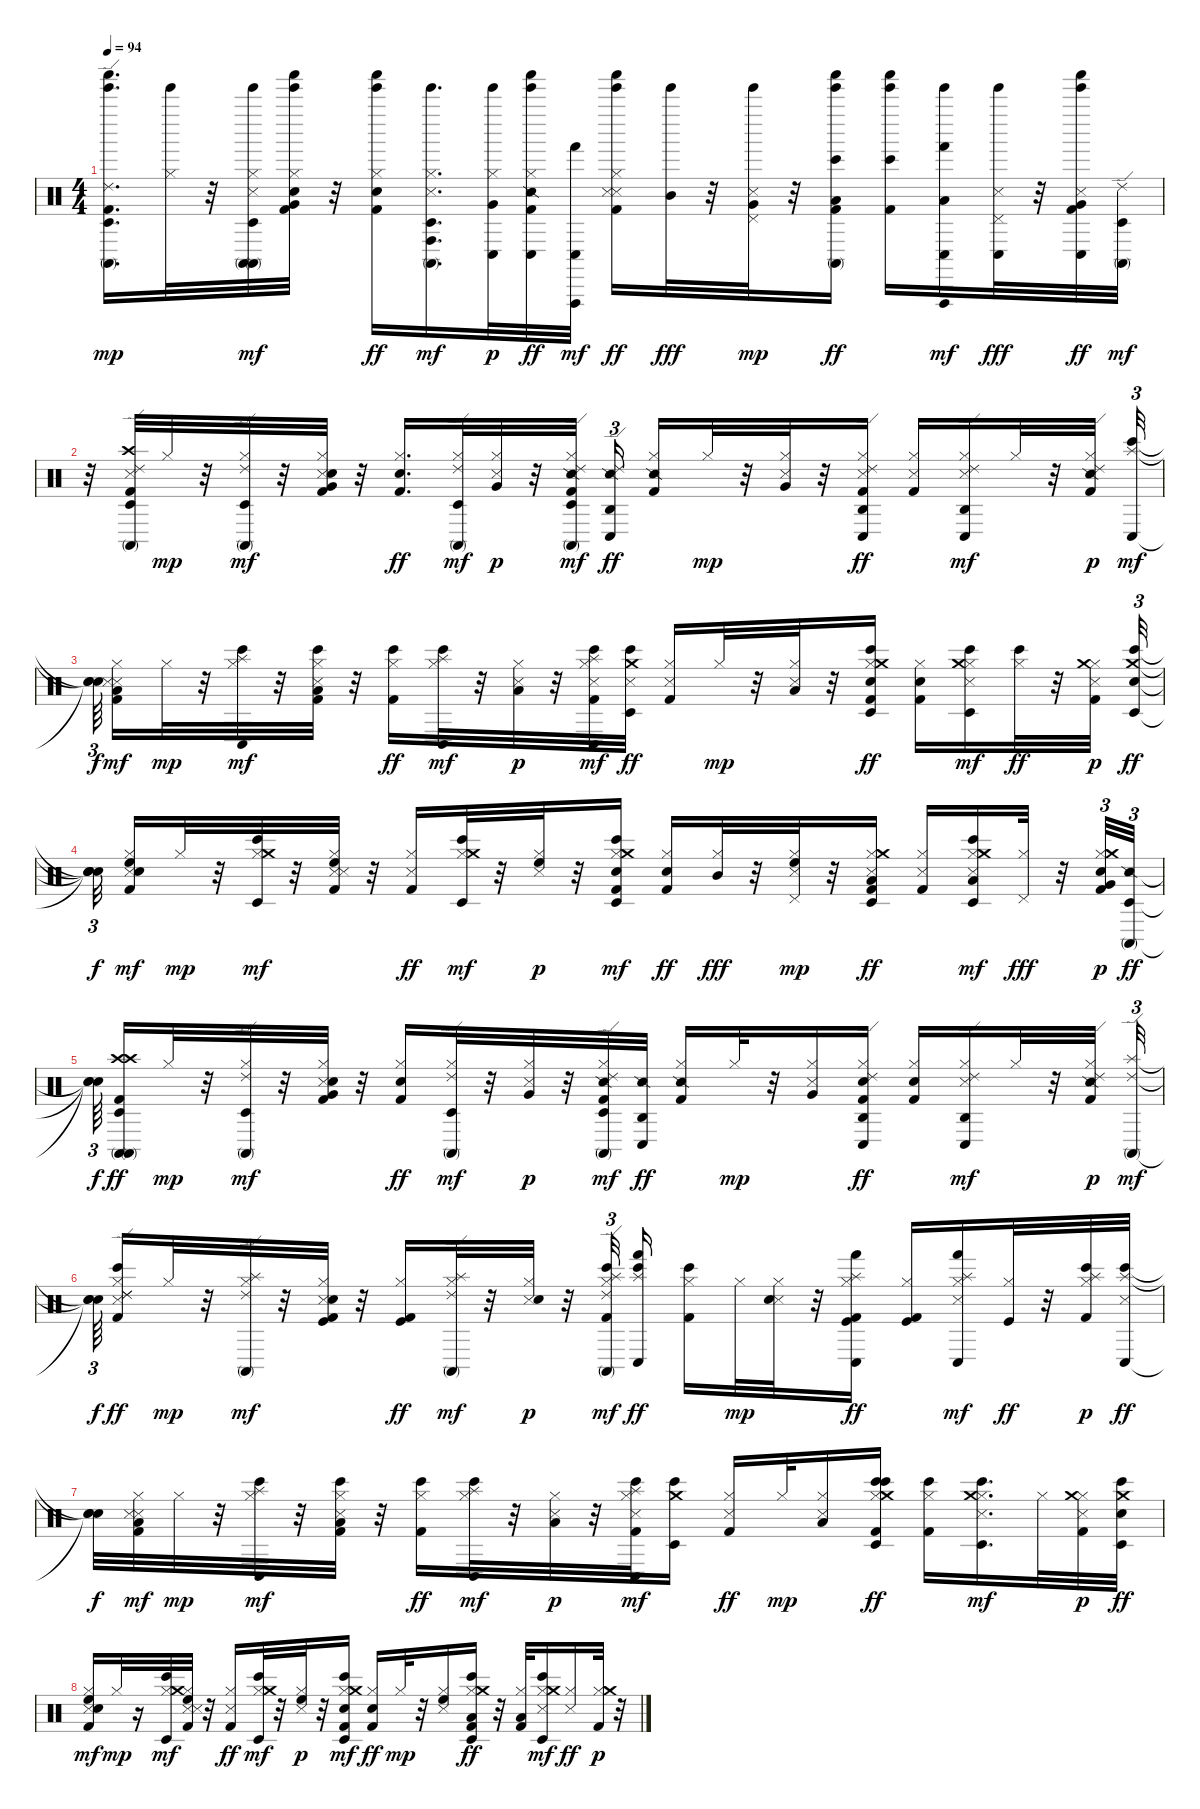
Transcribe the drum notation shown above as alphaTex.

\track "" {instrument percussion}
\staff {score}
\articulation defaults
\ts (4 4)
\tempo 94
\clef neutral
\ks c
("Conga high (mute)" "Timbale low (hit)" "Ride (edge) 2" "Kick (hit) 2" "Tinkle Bell (hit)" "Shaker (hit)").16{d dy mp volume 6} ("Tinkle Bell (hit)" "Hi-Hat (closed)").32 r.32 ("Tinkle Bell (hit)" "Conga high (mute)" "Snare (side stick) 3" "Hi-Hat (closed)" "Conga high (mute)" "Timbale low (hit)").32{dy mf} ("Kick (hit) 2" "Hi-Hat (closed)" "Tinkle Bell (hit)" "Shaker (hit)" "Snare (hit) 2" "Very Low Tom (hit)").32 r.32 ("Kick (hit) 2" "Hi-Hat (closed)" "Tinkle Bell (hit)" "Shaker (hit)" "Snare (hit) 2").16{dy ff} ("Tinkle Bell (hit)" "Conga high (hit)" "Snare (side stick) 3" "Hi-Hat (closed)" "Timbale low (hit)" "Conga high (mute)").16{d dy mf} ("Tinkle Bell (hit)" "Conga low (hit)" "Hi-Hat (closed)" "Very Low Tom (hit)").32{dy p} ("Kick (hit) 2" "Conga low (hit)" "Hi-Hat (closed)" "Tinkle Bell (hit)" "Shaker (hit)" "Snare (side stick) 2").32{dy ff} ("Vibraslap (hit)" "Hand (hit)" "Conga low (hit)").32{dy mf volume 6} ("Kick (hit) 2" "Snare (side stick) 3" "Tinkle Bell (hit)" "Shaker (hit)" "Hi-Hat (closed)" "Metronome (hit)").16{dy ff} ("Tinkle Bell (hit)" "Mid Tom (hit)").32{dy fff} r.32 ("Tinkle Bell (hit)" "Pedal Hi-Hat (hit)" "Snare (side stick) 3" "Very Low Tom (hit)").32{dy mp} r.32 ("Conga high (mute)" "Kick (hit) 2" "Tinkle Bell (hit)" "Shaker (hit)" "Low Tom (hit)" "Bongo High (hit)").16{dy ff} ("Kick (hit) 2" "Tinkle Bell (hit)" "Shaker (hit)" "Bongo High (hit)").16 ("Tinkle Bell (hit)" "Low Tom (hit)" "Vibraslap (hit)" "Hand (hit)" "Conga low (hit)").16{dy mf} ("Tinkle Bell (hit)" "Conga low (hit)" "Pedal Hi-Hat (hit)" "Snare (side stick) 3").32{dy fff} r.32 ("Kick (hit) 2" "Tinkle Bell (hit)" "Shaker (hit)" "Conga low (hit)" "Very Low Tom (hit)" "Metronome (hit)").32{dy ff volume 7} ("Conga high (mute)" "Timbale low (hit)" "Ride (edge) 2").32{dy mf volume 6} |
r.32 ("Conga high (mute)" "Timbale low (hit)" "Ride (edge) 2" "Crash high (hit)" "Kick (hit) 2" "Snare (side stick) 3").32 "Hi-Hat (closed)".32{dy mp} r.32 ("Hi-Hat (closed)" "Conga high (mute)" "Timbale low (hit)" "Ride (edge) 2").32{dy mf} r.32 ("Kick (hit) 2" "Snare (side stick) 3" "Hi-Hat (closed)" "Snare (hit) 2" "Very Low Tom (hit)").32 r.32 ("Kick (hit) 2" "Hi-Hat (closed)" "Snare (hit) 2").16{d dy ff} ("Hi-Hat (closed)" "Timbale low (hit)" "Conga high (mute)" "Ride (edge) 2").32{dy mf} ("Snare (side stick) 3" "Hi-Hat (closed)" "Very Low Tom (hit)").32{dy p} r.32 ("Kick (hit) 2" "Hi-Hat (closed)" "Snare (side stick) 2" "Conga high (mute)" "Ride (edge) 2" "Timbale low (hit)").32{dy mf} ("Conga low (hit)" "Agogo high (hit)" "Ride (edge) 2" "Snare (side stick) 2").16{tu (3 2) dy ff volume 6} ("Kick (hit) 2" "Hi-Hat (closed)" "Snare (side stick) 2").16 "Hi-Hat (closed)".32{dy mp} r.32 ("Snare (side stick) 3" "Hi-Hat (closed)" "Very Low Tom (hit)").32 r.32 ("Kick (hit) 2" "Hi-Hat (closed)" "Snare (side stick) 3" "Agogo high (hit)" "Ride (edge) 2" "Conga low (hit)").16{dy ff} ("Kick (hit) 2" "Hi-Hat (closed)" "Snare (side stick) 3").16 ("Snare (side stick) 3" "Hi-Hat (closed)" "Conga low (hit)" "Ride (edge) 2" "Agogo high (hit)").16{dy mf} "Hi-Hat (closed)".32 r.32 ("Kick (hit) 2" "Hi-Hat (closed)" "Snare (side stick) 2" "Ride (edge) 2").32{dy p volume 7} ("Bongo High (hit)" "Conga low (hit)" "Splash (hit)").32{tu (3 2) dy mf volume 6} |
("Snare (hit)"{t} "Snare (hit)"{t} "Snare (hit)"{t}).64{tu (3 2) dy f beam splitsecondary} ("Kick (hit) 2" "Snare (side stick) 3" "Hi-Hat (closed)" "Metronome (hit)" "Low Tom (hit)").16{dy mf} "Hi-Hat (closed)".32{dy mp} r.32 ("Hi-Hat (closed)" "Bongo High (hit)" "Conga low (hit)" "Splash (hit)").32{dy mf} r.32 ("Kick (hit) 2" "Snare (side stick) 3" "Hi-Hat (closed)" "Bongo High (hit)" "Low Tom (hit)").32 r.32 ("Kick (hit) 2" "Hi-Hat (closed)" "Bongo High (hit)").16{dy ff} ("Hi-Hat (closed)" "Conga low (hit)" "Bongo High (hit)" "Splash (hit)").32{dy mf} r.32 ("Snare (side stick) 3" "Hi-Hat (closed)" "Low Tom (hit)").32{dy p} r.32 ("Kick (hit) 2" "Hi-Hat (closed)" "Metronome (hit)" "Bongo High (hit)" "Splash (hit)" "Conga low (hit)").32{dy mf volume 7} ("Timbale low (hit)" "Bongo High (hit)" "Crash medium (hit)" "Metronome (hit)").32{dy ff volume 6} ("Kick (hit) 2" "Hi-Hat (closed)" "Metronome (hit)").16 "Hi-Hat (closed)".32{dy mp} r.32 ("Snare (side stick) 3" "Hi-Hat (closed)" "Low Tom (hit)").32 r.32 ("Kick (hit) 2" "Hi-Hat (closed)" "Electric Snare (hit)" "Timbale low (hit)" "Crash medium (hit)" "Bongo High (hit)").16{dy ff} ("Kick (hit) 2" "Hi-Hat (closed)" "Electric Snare (hit)").16 ("Snare (side stick) 3" "Hi-Hat (closed)" "Bongo High (hit)" "Crash medium (hit)" "Timbale low (hit)").16{dy mf} ("Hi-Hat (closed)" "Bongo High (hit)").32{dy ff} r.32 ("Kick (hit) 2" "Hi-Hat (closed)" "Metronome (hit)" "Crash medium (hit)").32{dy p} ("Bongo High (hit)" "Timbale low (hit)" "Crash medium (hit)" "Snare (hit) 2").32{tu (3 2) dy ff volume 6} |
("Snare (hit)"{t} "Snare (hit)"{t} "Snare (hit)"{t} "Snare (hit)"{t}).32{tu (3 2) dy f beam splitsecondary} ("Kick (hit) 2" "Snare (side stick) 3" "Hi-Hat (closed)" "Snare (hit) 2" "High Floor Tom (hit)").16{dy mf} "Hi-Hat (closed)".32{dy mp} r.32 ("Hi-Hat (closed)" "Bongo High (hit)" "Timbale low (hit)" "Crash medium (hit)").32{dy mf} r.32 ("Kick (hit) 2" "Snare (side stick) 3" "Hi-Hat (closed)" "Metronome (hit)" "High Floor Tom (hit)").32 r.32 ("Kick (hit) 2" "Hi-Hat (closed)" "Metronome (hit)").16{dy ff} ("Hi-Hat (closed)" "Timbale low (hit)" "Bongo High (hit)" "Crash medium (hit)").32{dy mf} r.32 ("Snare (side stick) 3" "Hi-Hat (closed)" "High Floor Tom (hit)").32{dy p} r.32 ("Kick (hit) 2" "Hi-Hat (closed)" "Snare (hit) 2" "Bongo High (hit)" "Crash medium (hit)" "Timbale low (hit)").16{dy mf} ("Kick (hit) 2" "Hi-Hat (closed)" "Snare (hit) 2").16{dy ff} ("Hi-Hat (closed)" "Mid Tom (hit)").32{dy fff} r.32 ("Snare (side stick) 3" "Pedal Hi-Hat (hit)" "Hi-Hat (closed)" "High Floor Tom (hit)").32{dy mp} r.32 ("Kick (hit) 2" "Hi-Hat (closed)" "Low Tom (hit)" "Metronome (hit)" "Timbale low (hit)" "Crash medium (hit)").16{dy ff} ("Kick (hit) 2" "Hi-Hat (closed)" "Metronome (hit)").16 ("Low Tom (hit)" "Snare (side stick) 3" "Hi-Hat (closed)" "Bongo High (hit)" "Crash medium (hit)" "Timbale low (hit)").16{dy mf} ("Hi-Hat (closed)" "Pedal Hi-Hat (hit)").32{dy fff} r.32 ("Kick (hit) 2" "Very Low Tom (hit)" "Hi-Hat (closed)" "Snare (hit) 2" "Crash medium (hit)").32{tu (3 2) dy p volume 7} ("Conga high (mute)" "Timbale low (hit)" "Snare (side stick) 2").32{tu (3 2) dy ff volume 6} |
("Snare (hit)"{t} "Snare (hit)"{t} "Snare (hit)"{t}).64{tu (3 2) dy f beam splitsecondary} ("Conga high (mute)" "Conga high (mute)" "Timbale low (hit)" "Crash high (hit)" "Crash high (hit)" "Kick (hit) 2").16{dy ff} "Hi-Hat (closed)".32{dy mp} r.32 ("Hi-Hat (closed)" "Conga high (mute)" "Timbale low (hit)" "Ride (edge) 2").32{dy mf} r.32 ("Kick (hit) 2" "Snare (side stick) 3" "Hi-Hat (closed)" "Snare (hit) 2" "Very Low Tom (hit)").32 r.32 ("Kick (hit) 2" "Hi-Hat (closed)" "Snare (hit) 2").16{dy ff} ("Hi-Hat (closed)" "Timbale low (hit)" "Conga high (mute)" "Ride (edge) 2").32{dy mf} r.32 ("Snare (side stick) 3" "Hi-Hat (closed)" "Very Low Tom (hit)").32{dy p} r.32 ("Kick (hit) 2" "Hi-Hat (closed)" "Snare (side stick) 2" "Conga high (mute)" "Ride (edge) 2" "Timbale low (hit)").32{dy mf} ("Conga low (hit)" "Agogo high (hit)" "Snare (side stick) 2").32{dy ff volume 6} ("Kick (hit) 2" "Hi-Hat (closed)" "Snare (side stick) 2").16 "Hi-Hat (closed)".32{dy mp} r.32 ("Snare (side stick) 3" "Hi-Hat (closed)" "Very Low Tom (hit)").16 ("Kick (hit) 2" "Hi-Hat (closed)" "Snare (hit) 2" "Agogo high (hit)" "Ride (edge) 2" "Conga low (hit)").16{dy ff} ("Kick (hit) 2" "Hi-Hat (closed)" "Snare (hit) 2").16 ("Snare (side stick) 3" "Hi-Hat (closed)" "Conga low (hit)" "Ride (edge) 2" "Agogo high (hit)").16{dy mf} "Hi-Hat (closed)".32 r.32 ("Kick (hit) 2" "Hi-Hat (closed)" "Snare (side stick) 2" "Ride (edge) 2").32{dy p volume 7} ("Ride (edge) 2" "Conga high (mute)" "Splash (hit)").32{tu (3 2) dy mf volume 6} |
("Snare (hit)"{t} "Snare (hit)"{t} "Snare (hit)"{t}).64{tu (3 2) dy f beam splitsecondary} ("Ride (edge) 2" "Ride (edge) 2" "Kick (hit) 2" "Snare (side stick) 3" "Hi-Hat (closed)" "Bongo High (hit)").16{dy ff} "Hi-Hat (closed)".32{dy mp} r.32 ("Hi-Hat (closed)" "Ride (edge) 2" "Conga high (mute)" "Splash (hit)").32{dy mf} r.32 ("Kick (hit) 2" "Snare (side stick) 3" "Hi-Hat (closed)" "Kick (hit)" "Electric Snare (hit)").32 r.32 ("Kick (hit) 2" "Hi-Hat (closed)" "Kick (hit)").16{dy ff} ("Hi-Hat (closed)" "Conga high (mute)" "Ride (edge) 2" "Splash (hit)").32{dy mf} r.32 ("Snare (side stick) 3" "Hi-Hat (closed)" "Electric Snare (hit)").32{dy p} r.32 ("Kick (hit) 2" "Hi-Hat (closed)" "Bongo High (hit)" "Ride (edge) 2" "Splash (hit)" "Conga high (mute)").32{tu (3 2) dy mf volume 7} ("Hand (hit)" "Conga low (hit)" "Splash (hit)" "Bongo High (hit)").16{dy ff volume 6} ("Kick (hit) 2" "Hi-Hat (closed)" "Bongo High (hit)").16 "Hi-Hat (closed)".32{dy mp} ("Snare (side stick) 3" "Hi-Hat (closed)" "Electric Snare (hit)").32 r.32 ("Kick (hit) 2" "Hi-Hat (closed)" "Kick (hit)" "Conga low (hit)" "Splash (hit)" "Hand (hit)").16{dy ff} ("Kick (hit) 2" "Hi-Hat (closed)" "Kick (hit)").16 ("Snare (side stick) 3" "Hi-Hat (closed)" "Hand (hit)" "Splash (hit)" "Conga low (hit)").16{dy mf} ("Hi-Hat (closed)" "Kick (hit)").32{dy ff} r.32 ("Kick (hit) 2" "Hi-Hat (closed)" "Bongo High (hit)" "Splash (hit)").32{dy p} ("Bongo High (hit)" "Conga low (hit)" "Splash (hit)" "Metronome (hit)").32{dy ff volume 6} |
("Snare (hit)"{t} "Snare (hit)"{t} "Snare (hit)"{t}).32{dy f} ("Kick (hit) 2" "Snare (side stick) 3" "Hi-Hat (closed)" "Metronome (hit)" "Low Tom (hit)").32{dy mf} "Hi-Hat (closed)".32{dy mp} r.32 ("Hi-Hat (closed)" "Bongo High (hit)" "Conga low (hit)" "Splash (hit)").32{dy mf} r.32 ("Kick (hit) 2" "Snare (side stick) 3" "Hi-Hat (closed)" "Bongo High (hit)" "Low Tom (hit)").32 r.32 ("Kick (hit) 2" "Hi-Hat (closed)" "Bongo High (hit)").16{dy ff} ("Hi-Hat (closed)" "Conga low (hit)" "Bongo High (hit)" "Splash (hit)").32{dy mf} r.32 ("Snare (side stick) 3" "Hi-Hat (closed)" "Low Tom (hit)").32{dy p} r.32 ("Kick (hit) 2" "Hi-Hat (closed)" "Metronome (hit)" "Bongo High (hit)" "Splash (hit)" "Conga low (hit)").32{dy mf volume 7} ("Bongo High (hit)" "Timbale low (hit)" "Crash medium (hit)").16{volume 6} ("Kick (hit) 2" "Hi-Hat (closed)" "Metronome (hit)").16{dy ff} "Hi-Hat (closed)".32{dy mp} ("Snare (side stick) 3" "Hi-Hat (closed)" "Low Tom (hit)").16 ("Kick (hit) 2" "Hi-Hat (closed)" "Bongo High (hit)" "Timbale low (hit)" "Crash medium (hit)" "Bongo High (hit)").16{dy ff} ("Kick (hit) 2" "Hi-Hat (closed)" "Bongo High (hit)").16 ("Snare (side stick) 3" "Hi-Hat (closed)" "Bongo High (hit)" "Crash medium (hit)" "Timbale low (hit)").16{d dy mf} "Hi-Hat (closed)".32 ("Kick (hit) 2" "Hi-Hat (closed)" "Metronome (hit)" "Crash medium (hit)").32{dy p volume 7} ("Bongo High (hit)" "Timbale low (hit)" "Crash medium (hit)" "Snare (hit) 2").32{dy ff volume 6} |
("Kick (hit) 2" "Snare (side stick) 3" "Hi-Hat (closed)" "Snare (hit) 2" "High Floor Tom (hit)").16{dy mf} "Hi-Hat (closed)".32{dy mp} r.16 ("Hi-Hat (closed)" "Bongo High (hit)" "Timbale low (hit)" "Crash medium (hit)").32{dy mf} ("Kick (hit) 2" "Snare (side stick) 3" "Hi-Hat (closed)" "Metronome (hit)" "High Floor Tom (hit)").32 r.32 ("Kick (hit) 2" "Hi-Hat (closed)" "Metronome (hit)").16{dy ff} ("Hi-Hat (closed)" "Timbale low (hit)" "Bongo High (hit)" "Crash medium (hit)").32{dy mf} r.32 ("Snare (side stick) 3" "Hi-Hat (closed)" "High Floor Tom (hit)").32{dy p} r.32 ("Kick (hit) 2" "Hi-Hat (closed)" "Snare (hit) 2" "Bongo High (hit)" "Crash medium (hit)" "Timbale low (hit)").16{dy mf} ("Kick (hit) 2" "Hi-Hat (closed)" "Snare (hit) 2").16{dy ff} "Hi-Hat (closed)".32{dy mp} r.32 ("Snare (side stick) 3" "Hi-Hat (closed)" "High Floor Tom (hit)").16 ("Kick (hit) 2" "Hi-Hat (closed)" "Low Tom (hit)" "Timbale low (hit)" "Crash medium (hit)" "Bongo High (hit)").16{dy ff} r.32 ("Kick (hit) 2" "Hi-Hat (closed)" "Low Tom (hit)").32 ("Snare (side stick) 3" "Hi-Hat (closed)" "Bongo High (hit)" "Crash medium (hit)" "Timbale low (hit)").16{dy mf} ("Hi-Hat (closed)" "Metronome (hit)").16{dy ff} ("Kick (hit) 2" "Hi-Hat (closed)" "Crash medium (hit)").32{dy p} r.32
